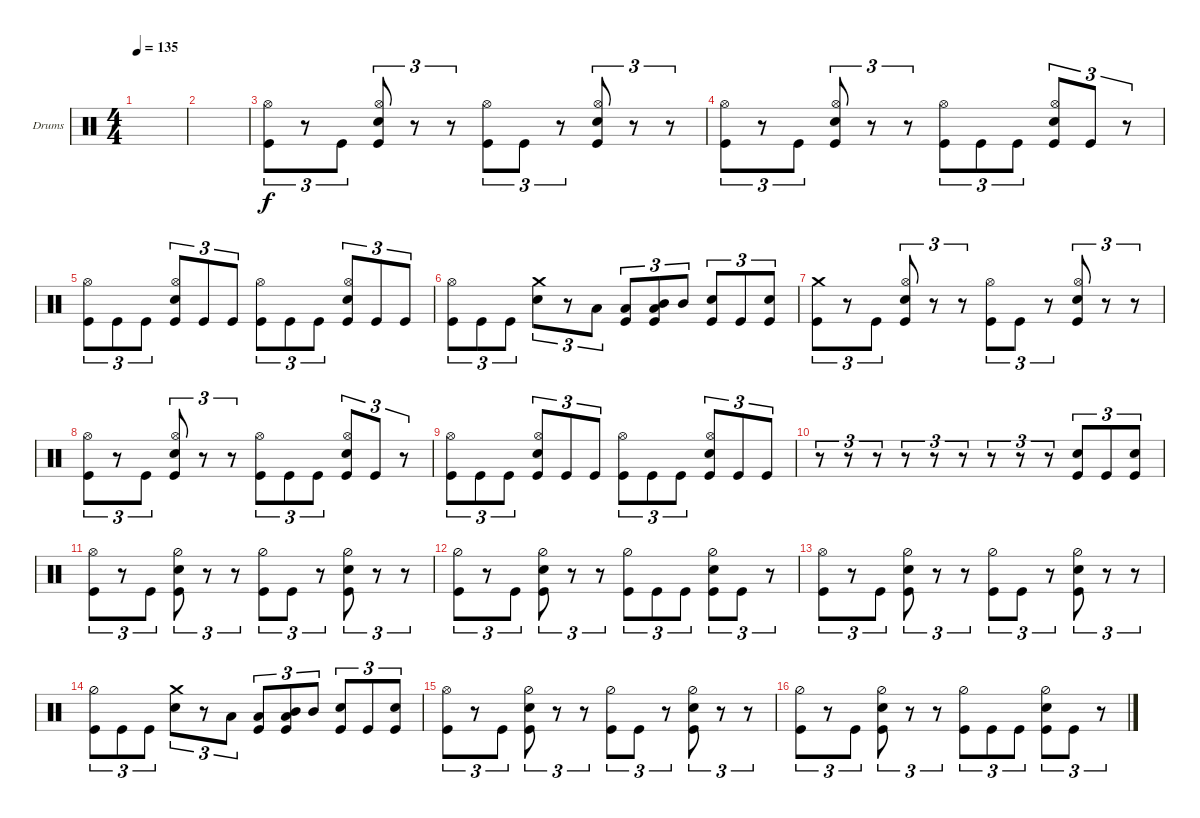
\defaultSystemsLayout 4
\bracketExtendMode groupsimilarinstruments
\firstSystemTrackNameOrientation horizontal
\otherSystemsTrackNameOrientation horizontal
\track ("Drumkit" "Drums") {instrument percussion}
\staff {score}
\articulation defaults
\ts (4 4)
\tempo 135
\clef neutral
\ks c
|
|
\scale
0.474178 ("Kick (hit)" "Hi-Hat (open)").8{tu (3 2)} r.8{tu (3 2)} "Kick (hit)".8{tu (3 2)} ("Kick (hit)" "Snare (hit) 2" "Hi-Hat (open)").8{tu (3 2)} r.8{tu (3 2)} r.8{tu (3 2)} ("Kick (hit)" "Hi-Hat (open)").8{tu (3 2)} "Kick (hit)".8{tu (3 2)} r.8{tu (3 2)} ("Kick (hit)" "Snare (hit) 2" "Hi-Hat (open)").8{tu (3 2)} r.8{tu (3 2)} r.8{tu (3 2)} |
\scale
0.262911 ("Kick (hit)" "Hi-Hat (open)").8{tu (3 2)} r.8{tu (3 2)} "Kick (hit)".8{tu (3 2)} ("Kick (hit)" "Snare (hit) 2" "Hi-Hat (open)").8{tu (3 2)} r.8{tu (3 2)} r.8{tu (3 2)} ("Kick (hit)" "Hi-Hat (open)").8{tu (3 2)} "Kick (hit)".8{tu (3 2)} "Kick (hit)".8{tu (3 2)} ("Kick (hit)" "Snare (hit) 2" "Hi-Hat (open)").8{tu (3 2)} "Kick (hit)".8{tu (3 2)} r.8{tu (3 2)} |
\scale
0.262911 ("Kick (hit)" "Hi-Hat (open)").8{tu (3 2)} "Kick (hit)".8{tu (3 2)} "Kick (hit)".8{tu (3 2)} ("Kick (hit)" "Hi-Hat (open)" "Snare (hit) 2").8{tu (3 2)} "Kick (hit)".8{tu (3 2)} "Kick (hit)".8{tu (3 2)} ("Kick (hit)" "Hi-Hat (open)").8{tu (3 2)} "Kick (hit)".8{tu (3 2)} "Kick (hit)".8{tu (3 2)} ("Kick (hit)" "Hi-Hat (open)" "Snare (hit) 2").8{tu (3 2)} "Kick (hit)".8{tu (3 2)} "Kick (hit)".8{tu (3 2)} |
\scale
0.333333 ("Kick (hit)" "Hi-Hat (open)").8{tu (3 2)} "Kick (hit)".8{tu (3 2)} "Kick (hit)".8{tu (3 2)} ("Snare (hit) 2" "Crash medium (hit)").8{tu (3 2)} r.8{tu (3 2)} "Low Tom (hit)".8{tu (3 2)} ("Kick (hit)" "Low Tom (hit)").8{tu (3 2)} ("Kick (hit)" "Low Tom (hit)" "Mid Tom (hit)").8{tu (3 2)} "Mid Tom (hit)".8{tu (3 2)} ("Kick (hit)" "Snare (hit) 2").8{tu (3 2)} "Kick (hit)".8{tu (3 2)} ("Kick (hit)" "Snare (hit) 2").8{tu (3 2)} |
\scale
0.333333 ("Kick (hit)" "Crash medium (hit)").8{tu (3 2)} r.8{tu (3 2)} "Kick (hit)".8{tu (3 2)} ("Kick (hit)" "Snare (hit) 2" "Hi-Hat (open)").8{tu (3 2)} r.8{tu (3 2)} r.8{tu (3 2)} ("Kick (hit)" "Hi-Hat (open)").8{tu (3 2)} "Kick (hit)".8{tu (3 2)} r.8{tu (3 2)} ("Kick (hit)" "Snare (hit) 2" "Hi-Hat (open)").8{tu (3 2)} r.8{tu (3 2)} r.8{tu (3 2)} |
\scale
0.333333 ("Kick (hit)" "Hi-Hat (open)").8{tu (3 2)} r.8{tu (3 2)} "Kick (hit)".8{tu (3 2)} ("Kick (hit)" "Snare (hit) 2" "Hi-Hat (open)").8{tu (3 2)} r.8{tu (3 2)} r.8{tu (3 2)} ("Kick (hit)" "Hi-Hat (open)").8{tu (3 2)} "Kick (hit)".8{tu (3 2)} "Kick (hit)".8{tu (3 2)} ("Kick (hit)" "Snare (hit) 2" "Hi-Hat (open)").8{tu (3 2)} "Kick (hit)".8{tu (3 2)} r.8{tu (3 2)} |
\scale
0.333333 ("Kick (hit)" "Hi-Hat (open)").8{tu (3 2)} "Kick (hit)".8{tu (3 2)} "Kick (hit)".8{tu (3 2)} ("Kick (hit)" "Hi-Hat (open)" "Snare (hit) 2").8{tu (3 2)} "Kick (hit)".8{tu (3 2)} "Kick (hit)".8{tu (3 2)} ("Kick (hit)" "Hi-Hat (open)").8{tu (3 2)} "Kick (hit)".8{tu (3 2)} "Kick (hit)".8{tu (3 2)} ("Kick (hit)" "Hi-Hat (open)" "Snare (hit) 2").8{tu (3 2)} "Kick (hit)".8{tu (3 2)} "Kick (hit)".8{tu (3 2)} |
\scale
0.333333 r.8{tu (3 2)} r.8{tu (3 2)} r.8{tu (3 2)} r.8{tu (3 2)} r.8{tu (3 2)} r.8{tu (3 2)} r.8{tu (3 2)} r.8{tu (3 2)} r.8{tu (3 2)} ("Kick (hit)" "Snare (hit) 2").8{tu (3 2)} "Kick (hit)".8{tu (3 2)} ("Kick (hit)" "Snare (hit) 2").8{tu (3 2)} |
\scale
0.333333 ("Kick (hit)" "Hi-Hat (open)").8{tu (3 2)} r.8{tu (3 2)} "Kick (hit)".8{tu (3 2)} ("Kick (hit)" "Snare (hit) 2" "Hi-Hat (half)").8{tu (3 2)} r.8{tu (3 2)} r.8{tu (3 2)} ("Kick (hit)" "Hi-Hat (half)").8{tu (3 2)} "Kick (hit)".8{tu (3 2)} r.8{tu (3 2)} ("Kick (hit)" "Snare (hit) 2" "Hi-Hat (half)").8{tu (3 2)} r.8{tu (3 2)} r.8{tu (3 2)} |
\scale
0.333333 ("Kick (hit)" "Hi-Hat (half)").8{tu (3 2)} r.8{tu (3 2)} "Kick (hit)".8{tu (3 2)} ("Kick (hit)" "Snare (hit) 2" "Hi-Hat (half)").8{tu (3 2)} r.8{tu (3 2)} r.8{tu (3 2)} ("Kick (hit)" "Hi-Hat (half)").8{tu (3 2)} "Kick (hit)".8{tu (3 2)} "Kick (hit)".8{tu (3 2)} ("Kick (hit)" "Snare (hit) 2" "Hi-Hat (half)").8{tu (3 2)} "Kick (hit)".8{tu (3 2)} r.8{tu (3 2)} |
\scale
0.333333 ("Kick (hit)" "Hi-Hat (open)").8{tu (3 2)} r.8{tu (3 2)} "Kick (hit)".8{tu (3 2)} ("Kick (hit)" "Snare (hit) 2" "Hi-Hat (half)").8{tu (3 2)} r.8{tu (3 2)} r.8{tu (3 2)} ("Kick (hit)" "Hi-Hat (half)").8{tu (3 2)} "Kick (hit)".8{tu (3 2)} r.8{tu (3 2)} ("Kick (hit)" "Snare (hit) 2" "Hi-Hat (half)").8{tu (3 2)} r.8{tu (3 2)} r.8{tu (3 2)} |
\scale
0.333333 ("Kick (hit)" "Hi-Hat (half)").8{tu (3 2)} "Kick (hit)".8{tu (3 2)} "Kick (hit)".8{tu (3 2)} ("Snare (hit) 2" "Crash medium (hit)").8{tu (3 2)} r.8{tu (3 2)} "Low Tom (hit)".8{tu (3 2)} ("Kick (hit)" "Low Tom (hit)").8{tu (3 2)} ("Kick (hit)" "Low Tom (hit)" "Mid Tom (hit)").8{tu (3 2)} "Mid Tom (hit)".8{tu (3 2)} ("Kick (hit)" "Snare (hit) 2").8{tu (3 2)} "Kick (hit)".8{tu (3 2)} ("Kick (hit)" "Snare (hit) 2").8{tu (3 2)} |
\scale
0.333333 ("Kick (hit)" "Hi-Hat (open)").8{tu (3 2)} r.8{tu (3 2)} "Kick (hit)".8{tu (3 2)} ("Kick (hit)" "Snare (hit) 2" "Hi-Hat (half)").8{tu (3 2)} r.8{tu (3 2)} r.8{tu (3 2)} ("Kick (hit)" "Hi-Hat (half)").8{tu (3 2)} "Kick (hit)".8{tu (3 2)} r.8{tu (3 2)} ("Kick (hit)" "Snare (hit) 2" "Hi-Hat (half)").8{tu (3 2)} r.8{tu (3 2)} r.8{tu (3 2)} |
\scale
0.333333 ("Kick (hit)" "Hi-Hat (half)").8{tu (3 2)} r.8{tu (3 2)} "Kick (hit)".8{tu (3 2)} ("Kick (hit)" "Snare (hit) 2" "Hi-Hat (half)").8{tu (3 2)} r.8{tu (3 2)} r.8{tu (3 2)} ("Kick (hit)" "Hi-Hat (half)").8{tu (3 2)} "Kick (hit)".8{tu (3 2)} "Kick (hit)".8{tu (3 2)} ("Kick (hit)" "Snare (hit) 2" "Hi-Hat (half)").8{tu (3 2)} "Kick (hit)".8{tu (3 2)} r.8{tu (3 2)}
